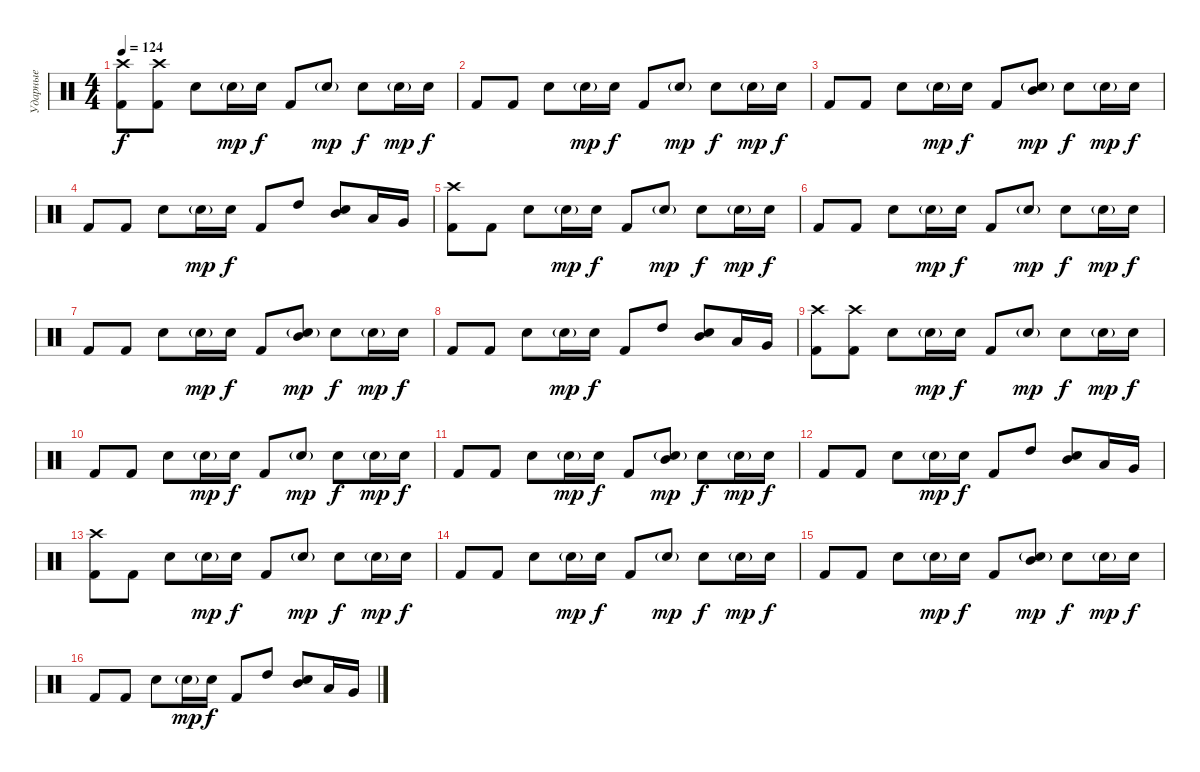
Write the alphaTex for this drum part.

\track ("Ударные" "Ударные") {instrument percussion}
\staff {score}
\articulation defaults
\ts (4 4)
\tempo 124
\clef neutral
\ks c
("Crash high (hit)" "Kick (hit) 2").8{dy f} ("Crash high (hit)" "Kick (hit) 2").8 "Electric Snare (hit)".8 "Electric Snare (hit)"{g}.16{dy mp} "Electric Snare (hit)".16{dy f} "Kick (hit) 2".8 "Electric Snare (hit)"{g}.8{dy mp} "Electric Snare (hit)".8{dy f} "Electric Snare (hit)"{g}.16{dy mp} "Electric Snare (hit)".16{dy f} |
"Kick (hit) 2".8 "Kick (hit) 2".8 "Electric Snare (hit)".8 "Electric Snare (hit)"{g}.16{dy mp} "Electric Snare (hit)".16{dy f} "Kick (hit) 2".8 "Electric Snare (hit)"{g}.8{dy mp} "Electric Snare (hit)".8{dy f} "Electric Snare (hit)"{g}.16{dy mp} "Electric Snare (hit)".16{dy f} |
"Kick (hit) 2".8 "Kick (hit) 2".8 "Electric Snare (hit)".8 "Electric Snare (hit)"{g}.16{dy mp} "Electric Snare (hit)".16{dy f} "Kick (hit) 2".8 ("Mid Tom (hit)" "Electric Snare (hit)"{g}).8{dy mp} "Electric Snare (hit)".8{dy f} "Electric Snare (hit)"{g}.16{dy mp} "Electric Snare (hit)".16{dy f} |
"Kick (hit) 2".8 "Kick (hit) 2".8 "Electric Snare (hit)".8 "Electric Snare (hit)"{g}.16{dy mp} "Electric Snare (hit)".16{dy f} "Kick (hit) 2".8 "High Tom (hit)".8 ("Mid Tom (hit)" "Electric Snare (hit)").8 "Low Tom (hit)".16 "Very Low Tom (hit)".16 |
("Crash high (hit)" "Kick (hit) 2").8 "Kick (hit) 2".8 "Electric Snare (hit)".8 "Electric Snare (hit)"{g}.16{dy mp} "Electric Snare (hit)".16{dy f} "Kick (hit) 2".8 "Electric Snare (hit)"{g}.8{dy mp} "Electric Snare (hit)".8{dy f} "Electric Snare (hit)"{g}.16{dy mp} "Electric Snare (hit)".16{dy f} |
"Kick (hit) 2".8 "Kick (hit) 2".8 "Electric Snare (hit)".8 "Electric Snare (hit)"{g}.16{dy mp} "Electric Snare (hit)".16{dy f} "Kick (hit) 2".8 "Electric Snare (hit)"{g}.8{dy mp} "Electric Snare (hit)".8{dy f} "Electric Snare (hit)"{g}.16{dy mp} "Electric Snare (hit)".16{dy f} |
"Kick (hit) 2".8 "Kick (hit) 2".8 "Electric Snare (hit)".8 "Electric Snare (hit)"{g}.16{dy mp} "Electric Snare (hit)".16{dy f} "Kick (hit) 2".8 ("Mid Tom (hit)" "Electric Snare (hit)"{g}).8{dy mp} "Electric Snare (hit)".8{dy f} "Electric Snare (hit)"{g}.16{dy mp} "Electric Snare (hit)".16{dy f} |
"Kick (hit) 2".8 "Kick (hit) 2".8 "Electric Snare (hit)".8 "Electric Snare (hit)"{g}.16{dy mp} "Electric Snare (hit)".16{dy f} "Kick (hit) 2".8 "High Tom (hit)".8 ("Mid Tom (hit)" "Electric Snare (hit)").8 "Low Tom (hit)".16 "Very Low Tom (hit)".16 |
("Crash high (hit)" "Kick (hit) 2").8 ("Crash high (hit)" "Kick (hit) 2").8 "Electric Snare (hit)".8 "Electric Snare (hit)"{g}.16{dy mp} "Electric Snare (hit)".16{dy f} "Kick (hit) 2".8 "Electric Snare (hit)"{g}.8{dy mp} "Electric Snare (hit)".8{dy f} "Electric Snare (hit)"{g}.16{dy mp} "Electric Snare (hit)".16{dy f} |
"Kick (hit) 2".8 "Kick (hit) 2".8 "Electric Snare (hit)".8 "Electric Snare (hit)"{g}.16{dy mp} "Electric Snare (hit)".16{dy f} "Kick (hit) 2".8 "Electric Snare (hit)"{g}.8{dy mp} "Electric Snare (hit)".8{dy f} "Electric Snare (hit)"{g}.16{dy mp} "Electric Snare (hit)".16{dy f} |
"Kick (hit) 2".8 "Kick (hit) 2".8 "Electric Snare (hit)".8 "Electric Snare (hit)"{g}.16{dy mp} "Electric Snare (hit)".16{dy f} "Kick (hit) 2".8 ("Mid Tom (hit)" "Electric Snare (hit)"{g}).8{dy mp} "Electric Snare (hit)".8{dy f} "Electric Snare (hit)"{g}.16{dy mp} "Electric Snare (hit)".16{dy f} |
"Kick (hit) 2".8 "Kick (hit) 2".8 "Electric Snare (hit)".8 "Electric Snare (hit)"{g}.16{dy mp} "Electric Snare (hit)".16{dy f} "Kick (hit) 2".8 "High Tom (hit)".8 ("Mid Tom (hit)" "Electric Snare (hit)").8 "Low Tom (hit)".16 "Very Low Tom (hit)".16 |
("Crash high (hit)" "Kick (hit) 2").8 "Kick (hit) 2".8 "Electric Snare (hit)".8 "Electric Snare (hit)"{g}.16{dy mp} "Electric Snare (hit)".16{dy f} "Kick (hit) 2".8 "Electric Snare (hit)"{g}.8{dy mp} "Electric Snare (hit)".8{dy f} "Electric Snare (hit)"{g}.16{dy mp} "Electric Snare (hit)".16{dy f} |
"Kick (hit) 2".8 "Kick (hit) 2".8 "Electric Snare (hit)".8 "Electric Snare (hit)"{g}.16{dy mp} "Electric Snare (hit)".16{dy f} "Kick (hit) 2".8 "Electric Snare (hit)"{g}.8{dy mp} "Electric Snare (hit)".8{dy f} "Electric Snare (hit)"{g}.16{dy mp} "Electric Snare (hit)".16{dy f} |
"Kick (hit) 2".8 "Kick (hit) 2".8 "Electric Snare (hit)".8 "Electric Snare (hit)"{g}.16{dy mp} "Electric Snare (hit)".16{dy f} "Kick (hit) 2".8 ("Mid Tom (hit)" "Electric Snare (hit)"{g}).8{dy mp} "Electric Snare (hit)".8{dy f} "Electric Snare (hit)"{g}.16{dy mp} "Electric Snare (hit)".16{dy f} |
"Kick (hit) 2".8 "Kick (hit) 2".8 "Electric Snare (hit)".8 "Electric Snare (hit)"{g}.16{dy mp} "Electric Snare (hit)".16{dy f} "Kick (hit) 2".8 "High Tom (hit)".8 ("Mid Tom (hit)" "Electric Snare (hit)").8 "Low Tom (hit)".16 "Very Low Tom (hit)".16
